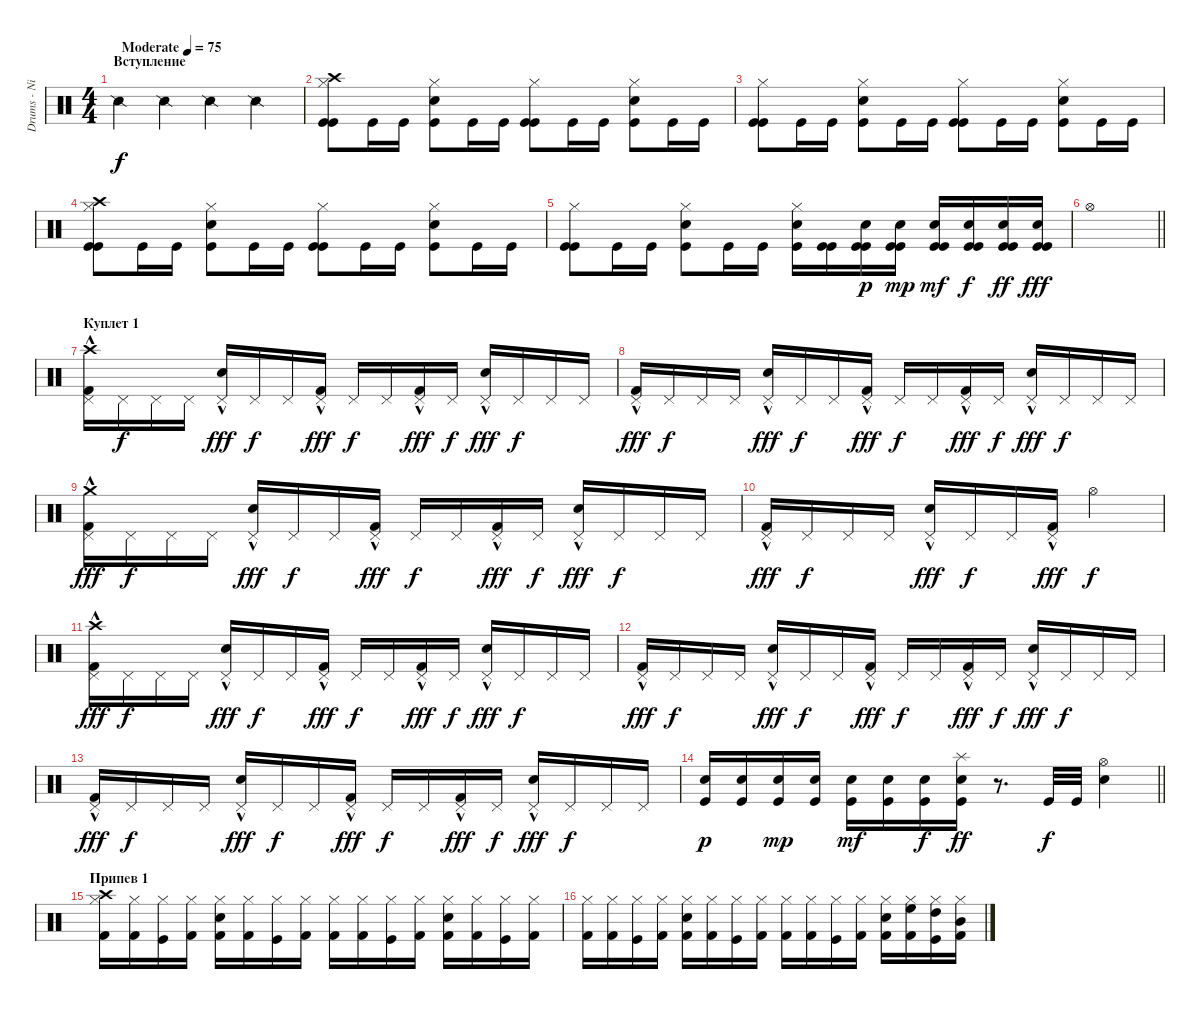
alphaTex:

\track ("Drums - NikiTon" "Drums - Ni") {instrument percussion}
\staff {score}
\articulation defaults
\ts (4 4)
\section ("" "Вступление")
\tempo (75 "Moderate")
\clef neutral
\ks c "Snare (side stick) 2".4{dy f} "Snare (side stick) 2".4 "Snare (side stick) 2".4 "Snare (side stick) 2".4
|
("Hi-Hat (closed)" "Kick (hit)" "Kick (hit)" "Crash high (hit)").8 "Kick (hit)".16 "Kick (hit)".16 ("Hi-Hat (closed)" "Kick (hit)" "Electric Snare (hit)").8 "Kick (hit)".16 "Kick (hit)".16 ("Hi-Hat (closed)" "Kick (hit)" "Kick (hit)").8 "Kick (hit)".16 "Kick (hit)".16 ("Hi-Hat (closed)" "Kick (hit)" "Electric Snare (hit)").8 "Kick (hit)".16 "Kick (hit)".16 |
("Hi-Hat (closed)" "Kick (hit)" "Kick (hit)").8 "Kick (hit)".16 "Kick (hit)".16 ("Hi-Hat (closed)" "Kick (hit)" "Electric Snare (hit)").8 "Kick (hit)".16 "Kick (hit)".16 ("Hi-Hat (closed)" "Kick (hit)" "Kick (hit)").8 "Kick (hit)".16 "Kick (hit)".16 ("Hi-Hat (closed)" "Kick (hit)" "Electric Snare (hit)").8 "Kick (hit)".16 "Kick (hit)".16 |
("Hi-Hat (closed)" "Kick (hit)" "Kick (hit)" "Crash high (hit)").8 "Kick (hit)".16 "Kick (hit)".16 ("Hi-Hat (closed)" "Kick (hit)" "Electric Snare (hit)").8 "Kick (hit)".16 "Kick (hit)".16 ("Hi-Hat (closed)" "Kick (hit)" "Kick (hit)").8 "Kick (hit)".16 "Kick (hit)".16 ("Hi-Hat (closed)" "Kick (hit)" "Electric Snare (hit)").8 "Kick (hit)".16 "Kick (hit)".16 |
("Hi-Hat (closed)" "Kick (hit)" "Kick (hit)").8 "Kick (hit)".16 "Kick (hit)".16 ("Hi-Hat (closed)" "Kick (hit)" "Electric Snare (hit)").8 "Kick (hit)".16 "Kick (hit)".16 ("Hi-Hat (closed)" "Kick (hit)" "Electric Snare (hit)").16 ("Kick (hit)" "Kick (hit)").16 ("Kick (hit)" "Kick (hit)" "Electric Snare (hit)").16{dy p} ("Kick (hit)" "Kick (hit)" "Electric Snare (hit)").16{dy mp} ("Kick (hit)" "Kick (hit)" "Electric Snare (hit)").16{dy mf} ("Kick (hit)" "Kick (hit)" "Electric Snare (hit)").16{dy f} ("Kick (hit)" "Kick (hit)" "Electric Snare (hit)").16{dy ff} ("Kick (hit)" "Kick (hit)" "Electric Snare (hit)").16{dy fff} |
\barLineRight lightlight "Hi-Hat (open)".1
|
\section ("" "Куплет 1")
("Crash high (hit)" "Pedal Hi-Hat (hit)"{hac} "Kick (hit) 2").16 "Pedal Hi-Hat (hit)".16{dy f} "Pedal Hi-Hat (hit)".16 "Pedal Hi-Hat (hit)".16 ("Pedal Hi-Hat (hit)"{hac} "Electric Snare (hit)"{hac}).16{dy fff} "Pedal Hi-Hat (hit)".16{dy f} "Pedal Hi-Hat (hit)".16 ("Pedal Hi-Hat (hit)"{hac} "Kick (hit) 2").16{dy fff} "Pedal Hi-Hat (hit)".16{dy f} "Pedal Hi-Hat (hit)".16 ("Pedal Hi-Hat (hit)"{hac} "Kick (hit) 2").16{dy fff} "Pedal Hi-Hat (hit)".16{dy f} ("Pedal Hi-Hat (hit)"{hac} "Electric Snare (hit)"{hac}).16{dy fff} "Pedal Hi-Hat (hit)".16{dy f} "Pedal Hi-Hat (hit)".16 "Pedal Hi-Hat (hit)".16 |
("Pedal Hi-Hat (hit)"{hac} "Kick (hit) 2").16{dy fff} "Pedal Hi-Hat (hit)".16{dy f} "Pedal Hi-Hat (hit)".16 "Pedal Hi-Hat (hit)".16 ("Pedal Hi-Hat (hit)"{hac} "Electric Snare (hit)"{hac}).16{dy fff} "Pedal Hi-Hat (hit)".16{dy f} "Pedal Hi-Hat (hit)".16 ("Pedal Hi-Hat (hit)"{hac} "Kick (hit) 2").16{dy fff} "Pedal Hi-Hat (hit)".16{dy f} "Pedal Hi-Hat (hit)".16 ("Pedal Hi-Hat (hit)"{hac} "Kick (hit) 2").16{dy fff} "Pedal Hi-Hat (hit)".16{dy f} ("Pedal Hi-Hat (hit)"{hac} "Electric Snare (hit)"{hac}).16{dy fff} "Pedal Hi-Hat (hit)".16{dy f} "Pedal Hi-Hat (hit)".16 "Pedal Hi-Hat (hit)".16 |
("Crash medium (hit)" "Pedal Hi-Hat (hit)"{hac} "Kick (hit) 2").16{dy fff} "Pedal Hi-Hat (hit)".16{dy f} "Pedal Hi-Hat (hit)".16 "Pedal Hi-Hat (hit)".16 ("Pedal Hi-Hat (hit)"{hac} "Electric Snare (hit)"{hac}).16{dy fff} "Pedal Hi-Hat (hit)".16{dy f} "Pedal Hi-Hat (hit)".16 ("Pedal Hi-Hat (hit)"{hac} "Kick (hit) 2").16{dy fff} "Pedal Hi-Hat (hit)".16{dy f} "Pedal Hi-Hat (hit)".16 ("Pedal Hi-Hat (hit)"{hac} "Kick (hit) 2").16{dy fff} "Pedal Hi-Hat (hit)".16{dy f} ("Pedal Hi-Hat (hit)"{hac} "Electric Snare (hit)"{hac}).16{dy fff} "Pedal Hi-Hat (hit)".16{dy f} "Pedal Hi-Hat (hit)".16 "Pedal Hi-Hat (hit)".16 |
("Pedal Hi-Hat (hit)"{hac} "Kick (hit) 2").16{dy fff} "Pedal Hi-Hat (hit)".16{dy f} "Pedal Hi-Hat (hit)".16 "Pedal Hi-Hat (hit)".16 ("Pedal Hi-Hat (hit)"{hac} "Electric Snare (hit)"{hac}).16{dy fff} "Pedal Hi-Hat (hit)".16{dy f} "Pedal Hi-Hat (hit)".16 ("Pedal Hi-Hat (hit)"{hac} "Kick (hit) 2").16{dy fff} "Hi-Hat (open)".2{dy f} |
("Crash high (hit)" "Pedal Hi-Hat (hit)"{hac} "Kick (hit) 2").16{dy fff} "Pedal Hi-Hat (hit)".16{dy f} "Pedal Hi-Hat (hit)".16 "Pedal Hi-Hat (hit)".16 ("Pedal Hi-Hat (hit)"{hac} "Electric Snare (hit)"{hac}).16{dy fff} "Pedal Hi-Hat (hit)".16{dy f} "Pedal Hi-Hat (hit)".16 ("Pedal Hi-Hat (hit)"{hac} "Kick (hit) 2").16{dy fff} "Pedal Hi-Hat (hit)".16{dy f} "Pedal Hi-Hat (hit)".16 ("Pedal Hi-Hat (hit)"{hac} "Kick (hit) 2").16{dy fff} "Pedal Hi-Hat (hit)".16{dy f} ("Pedal Hi-Hat (hit)"{hac} "Electric Snare (hit)"{hac}).16{dy fff} "Pedal Hi-Hat (hit)".16{dy f} "Pedal Hi-Hat (hit)".16 "Pedal Hi-Hat (hit)".16 |
("Pedal Hi-Hat (hit)"{hac} "Kick (hit) 2").16{dy fff} "Pedal Hi-Hat (hit)".16{dy f} "Pedal Hi-Hat (hit)".16 "Pedal Hi-Hat (hit)".16 ("Pedal Hi-Hat (hit)"{hac} "Electric Snare (hit)"{hac}).16{dy fff} "Pedal Hi-Hat (hit)".16{dy f} "Pedal Hi-Hat (hit)".16 ("Pedal Hi-Hat (hit)"{hac} "Kick (hit) 2").16{dy fff} "Pedal Hi-Hat (hit)".16{dy f} "Pedal Hi-Hat (hit)".16 ("Pedal Hi-Hat (hit)"{hac} "Kick (hit) 2").16{dy fff} "Pedal Hi-Hat (hit)".16{dy f} ("Pedal Hi-Hat (hit)"{hac} "Electric Snare (hit)"{hac}).16{dy fff} "Pedal Hi-Hat (hit)".16{dy f} "Pedal Hi-Hat (hit)".16 "Pedal Hi-Hat (hit)".16 |
("Pedal Hi-Hat (hit)"{hac} "Kick (hit) 2").16{dy fff} "Pedal Hi-Hat (hit)".16{dy f} "Pedal Hi-Hat (hit)".16 "Pedal Hi-Hat (hit)".16 ("Pedal Hi-Hat (hit)"{hac} "Electric Snare (hit)"{hac}).16{dy fff} "Pedal Hi-Hat (hit)".16{dy f} "Pedal Hi-Hat (hit)".16 ("Pedal Hi-Hat (hit)"{hac} "Kick (hit) 2").16{dy fff} "Pedal Hi-Hat (hit)".16{dy f} "Pedal Hi-Hat (hit)".16 ("Pedal Hi-Hat (hit)"{hac} "Kick (hit) 2").16{dy fff} "Pedal Hi-Hat (hit)".16{dy f} ("Pedal Hi-Hat (hit)"{hac} "Electric Snare (hit)"{hac}).16{dy fff} "Pedal Hi-Hat (hit)".16{dy f} "Pedal Hi-Hat (hit)".16 "Pedal Hi-Hat (hit)".16 |
\barLineRight lightlight
("Electric Snare (hit)" "Kick (hit)").16{dy p} ("Electric Snare (hit)" "Kick (hit)").16 ("Electric Snare (hit)" "Kick (hit)").16{dy mp} ("Electric Snare (hit)" "Kick (hit)").16 ("Electric Snare (hit)" "Kick (hit)").16{dy mf} ("Electric Snare (hit)" "Kick (hit)").16 ("Electric Snare (hit)" "Kick (hit)").16{dy f} ("Splash (hit)" "Electric Snare (hit)" "Kick (hit)").16{dy ff} r.8{d} "Kick (hit)".32{dy f} "Kick (hit)".32 ("Electric Snare (hit)" "Hi-Hat (open)").4 |
\section ("" "Припев 1")
("Hi-Hat (closed)" "Crash high (hit)" "Kick (hit) 2").16 ("Hi-Hat (closed)" "Kick (hit) 2").16 ("Hi-Hat (closed)" "Kick (hit)").16 ("Hi-Hat (closed)" "Kick (hit) 2").16 ("Snare (hit) 2" "Hi-Hat (closed)" "Kick (hit) 2").16 ("Hi-Hat (closed)" "Kick (hit) 2").16 ("Hi-Hat (closed)" "Kick (hit)").16 ("Hi-Hat (closed)" "Kick (hit) 2").16 ("Hi-Hat (closed)" "Kick (hit) 2").16 ("Hi-Hat (closed)" "Kick (hit) 2").16 ("Hi-Hat (closed)" "Kick (hit)").16 ("Hi-Hat (closed)" "Kick (hit) 2").16 ("Snare (hit) 2" "Hi-Hat (closed)" "Kick (hit) 2").16 ("Hi-Hat (closed)" "Kick (hit) 2").16 ("Hi-Hat (closed)" "Kick (hit)").16 ("Hi-Hat (closed)" "Kick (hit) 2").16 |
("Hi-Hat (closed)" "Kick (hit) 2").16 ("Hi-Hat (closed)" "Kick (hit) 2").16 ("Hi-Hat (closed)" "Kick (hit)").16 ("Hi-Hat (closed)" "Kick (hit) 2").16 ("Snare (hit) 2" "Hi-Hat (closed)" "Kick (hit) 2").16 ("Hi-Hat (closed)" "Kick (hit) 2").16 ("Hi-Hat (closed)" "Kick (hit)").16 ("Hi-Hat (closed)" "Kick (hit) 2").16 ("Hi-Hat (closed)" "Kick (hit) 2").16 ("Hi-Hat (closed)" "Kick (hit) 2").16 ("Hi-Hat (closed)" "Kick (hit)").16 ("Hi-Hat (closed)" "Kick (hit) 2").16 ("Snare (hit) 2" "Hi-Hat (closed)" "Kick (hit) 2").16 ("High Floor Tom (hit)" "Hi-Hat (closed)" "Kick (hit) 2").16 ("High Tom (hit)" "Hi-Hat (closed)" "Kick (hit)").16 ("Mid Tom (hit)" "Hi-Hat (closed)" "Kick (hit) 2").16
